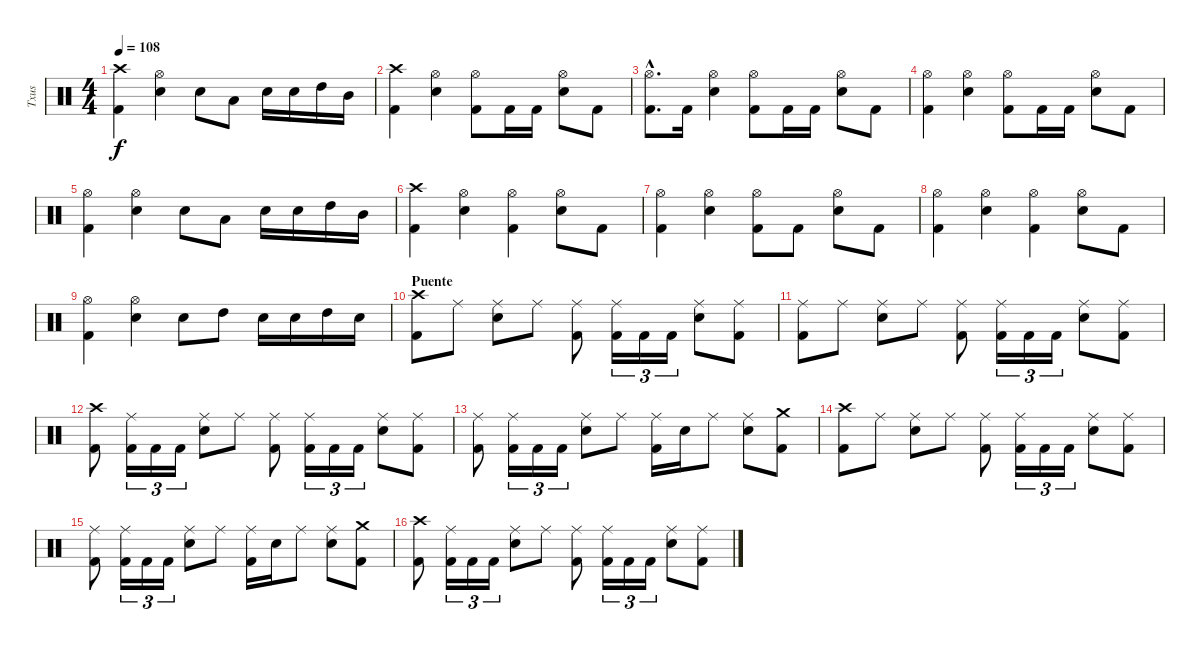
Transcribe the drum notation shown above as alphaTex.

\track ("Txus" "Txus") {instrument percussion}
\staff {score}
\articulation defaults
\ts (4 4)
\tempo 108
\clef neutral
\ks c
("Kick (hit) 2" "Crash high (hit)").4{dy f} ("Electric Snare (hit)" "Hi-Hat (open)").4 "Electric Snare (hit)".8 "Low Tom (hit)".8 "Electric Snare (hit)".16 "Electric Snare (hit)".16 "High Tom (hit)".16 "Mid Tom (hit)".16 |
("Kick (hit) 2" "Crash high (hit)").4 ("Electric Snare (hit)" "Hi-Hat (open)").4 ("Kick (hit) 2" "Hi-Hat (open)").8 "Kick (hit) 2".16 "Kick (hit) 2".16 ("Electric Snare (hit)" "Hi-Hat (open)").8 "Kick (hit) 2".8 |
("Kick (hit) 2"{hac} "Hi-Hat (open)"{hac}).8{d} "Kick (hit) 2".16 ("Electric Snare (hit)" "Hi-Hat (open)").4 ("Kick (hit) 2" "Hi-Hat (open)").8 "Kick (hit) 2".16 "Kick (hit) 2".16 ("Electric Snare (hit)" "Hi-Hat (open)").8 "Kick (hit) 2".8 |
("Kick (hit) 2" "Hi-Hat (open)").4 ("Electric Snare (hit)" "Hi-Hat (open)").4 ("Kick (hit) 2" "Hi-Hat (open)").8 "Kick (hit) 2".16 "Kick (hit) 2".16 ("Electric Snare (hit)" "Hi-Hat (open)").8 "Kick (hit) 2".8 |
("Kick (hit) 2" "Hi-Hat (open)").4 ("Electric Snare (hit)" "Hi-Hat (open)").4 "Electric Snare (hit)".8 "Low Tom (hit)".8 "Electric Snare (hit)".16 "Electric Snare (hit)".16 "High Tom (hit)".16 "Mid Tom (hit)".16 |
("Kick (hit) 2" "Crash high (hit)").4 ("Electric Snare (hit)" "Hi-Hat (open)").4 ("Kick (hit) 2" "Hi-Hat (open)").4 ("Electric Snare (hit)" "Hi-Hat (open)").8 "Kick (hit) 2".8 |
("Kick (hit) 2" "Hi-Hat (open)").4 ("Electric Snare (hit)" "Hi-Hat (open)").4 ("Kick (hit) 2" "Hi-Hat (open)").8 "Kick (hit) 2".8 ("Electric Snare (hit)" "Hi-Hat (open)").8 "Kick (hit) 2".8 |
("Kick (hit) 2" "Hi-Hat (open)").4 ("Electric Snare (hit)" "Hi-Hat (open)").4 ("Kick (hit) 2" "Hi-Hat (open)").4 ("Electric Snare (hit)" "Hi-Hat (open)").8 "Kick (hit) 2".8 |
("Kick (hit) 2" "Hi-Hat (open)").4 ("Electric Snare (hit)" "Hi-Hat (open)").4 "Electric Snare (hit)".8 "High Tom (hit)".8 "Electric Snare (hit)".16 "Electric Snare (hit)".16 "High Tom (hit)".16 "Electric Snare (hit)".16 |
\section ("" "Puente")
("Kick (hit) 2" "Crash high (hit)").8 "Ride (middle)".8 ("Electric Snare (hit)" "Ride (middle)").8 "Ride (middle)".8 ("Kick (hit) 2" "Ride (middle)").8 ("Kick (hit) 2" "Ride (middle)").16{tu (3 2)} "Kick (hit) 2".16{tu (3 2)} "Kick (hit) 2".16{tu (3 2)} ("Electric Snare (hit)" "Ride (middle)").8 ("Kick (hit) 2" "Ride (middle)").8 |
("Kick (hit) 2" "Ride (middle)").8 "Ride (middle)".8 ("Electric Snare (hit)" "Ride (middle)").8 "Ride (middle)".8 ("Kick (hit) 2" "Ride (middle)").8 ("Kick (hit) 2" "Ride (middle)").16{tu (3 2)} "Kick (hit) 2".16{tu (3 2)} "Kick (hit) 2".16{tu (3 2)} ("Electric Snare (hit)" "Ride (middle)").8 ("Kick (hit) 2" "Ride (middle)").8 |
("Kick (hit) 2" "Crash high (hit)").8 ("Kick (hit) 2" "Ride (middle)").16{tu (3 2)} "Kick (hit) 2".16{tu (3 2)} "Kick (hit) 2".16{tu (3 2)} ("Electric Snare (hit)" "Ride (middle)").8 "Ride (middle)".8 ("Kick (hit) 2" "Ride (middle)").8 ("Kick (hit) 2" "Ride (middle)").16{tu (3 2)} "Kick (hit) 2".16{tu (3 2)} "Kick (hit) 2".16{tu (3 2)} ("Electric Snare (hit)" "Ride (middle)").8 ("Kick (hit) 2" "Ride (middle)").8 |
("Kick (hit) 2" "Ride (middle)").8 ("Kick (hit) 2" "Ride (middle)").16{tu (3 2)} "Kick (hit) 2".16{tu (3 2)} "Kick (hit) 2".16{tu (3 2)} ("Electric Snare (hit)" "Ride (middle)").8 "Ride (middle)".8 ("Kick (hit) 2" "Ride (middle)").16 "Electric Snare (hit)".16 "Ride (middle)".8 ("Electric Snare (hit)" "Ride (middle)").8 ("Kick (hit) 2" "Crash medium (hit)").8 |
("Kick (hit) 2" "Crash high (hit)").8 "Ride (middle)".8 ("Electric Snare (hit)" "Ride (middle)").8 "Ride (middle)".8 ("Kick (hit) 2" "Ride (middle)").8 ("Kick (hit) 2" "Ride (middle)").16{tu (3 2)} "Kick (hit) 2".16{tu (3 2)} "Kick (hit) 2".16{tu (3 2)} ("Electric Snare (hit)" "Ride (middle)").8 ("Kick (hit) 2" "Ride (middle)").8 |
("Kick (hit) 2" "Ride (middle)").8 ("Kick (hit) 2" "Ride (middle)").16{tu (3 2)} "Kick (hit) 2".16{tu (3 2)} "Kick (hit) 2".16{tu (3 2)} ("Electric Snare (hit)" "Ride (middle)").8 "Ride (middle)".8 ("Kick (hit) 2" "Ride (middle)").16 "Electric Snare (hit)".16 "Ride (middle)".8 ("Electric Snare (hit)" "Ride (middle)").8 ("Kick (hit) 2" "Crash medium (hit)").8 |
("Kick (hit) 2" "Crash high (hit)").8 ("Kick (hit) 2" "Ride (middle)").16{tu (3 2)} "Kick (hit) 2".16{tu (3 2)} "Kick (hit) 2".16{tu (3 2)} ("Electric Snare (hit)" "Ride (middle)").8 "Ride (middle)".8 ("Kick (hit) 2" "Ride (middle)").8 ("Kick (hit) 2" "Ride (middle)").16{tu (3 2)} "Kick (hit) 2".16{tu (3 2)} "Kick (hit) 2".16{tu (3 2)} ("Electric Snare (hit)" "Ride (middle)").8 ("Kick (hit) 2" "Ride (middle)").8
